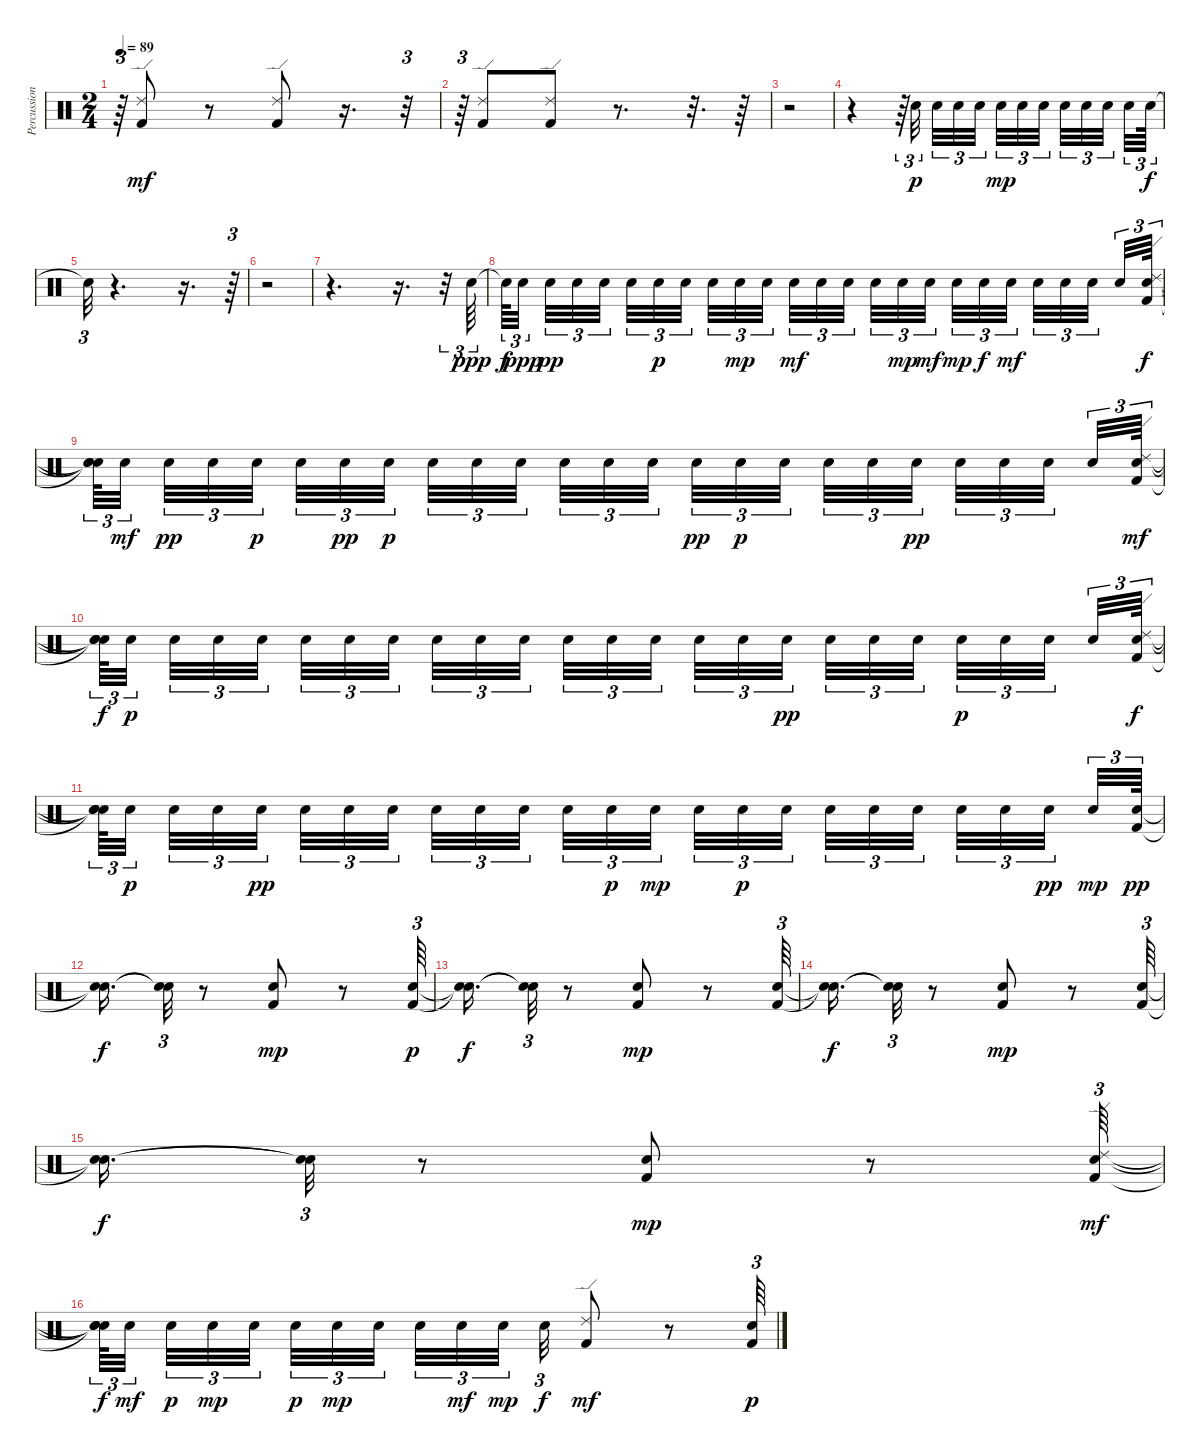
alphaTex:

\track ("Percussion" "Percussion") {instrument percussion}
\staff {score}
\articulation defaults
\ts (2 4)
\tempo 89
\clef neutral
\ks c
r.64{tu (3 2) dy mf} ("Kick (hit) 2" "Ride (edge) 2").8 r.8 ("Ride (edge) 2" "Kick (hit) 2").8 r.16{d} r.32{tu (3 2)} |
r.64{tu (3 2)} ("Ride (edge) 2" "Kick (hit) 2").8 ("Ride (edge) 2" "Kick (hit) 2").8 r.8{d} r.32{d} r.64 |
r.2 |
r.4 r.64{tu (3 2)} "Snare (hit) 2".32{tu (3 2) dy p beam splitsecondary} "Snare (hit) 2".32{tu (3 2)} "Snare (hit) 2".32{tu (3 2)} "Snare (hit) 2".32{tu (3 2) beam splitsecondary} "Snare (hit) 2".32{tu (3 2) dy mp} "Snare (hit) 2".32{tu (3 2)} "Snare (hit) 2".32{tu (3 2) beam splitsecondary} "Snare (hit) 2".32{tu (3 2)} "Snare (hit) 2".32{tu (3 2)} "Snare (hit) 2".32{tu (3 2) beam splitsecondary} "Snare (hit) 2".32{tu (3 2)} "Snare (hit) 2".64{tu (3 2) dy f} |
"Snare (hit)"{t}.32{tu (3 2)} r.4{d} r.16{d} r.64{tu (3 2)} |
r.2 |
r.4{d} r.16{d} r.32{tu (3 2)} "Snare (hit) 2".64{tu (3 2) dy ppp} |
"Snare (hit)"{t}.64{tu (3 2) dy f} "Snare (hit) 2".32{tu (3 2) dy ppp beam splitsecondary} "Snare (hit) 2".32{tu (3 2) dy pp} "Snare (hit) 2".32{tu (3 2)} "Snare (hit) 2".32{tu (3 2) beam splitsecondary} "Snare (hit) 2".32{tu (3 2)} "Snare (hit) 2".32{tu (3 2) dy p} "Snare (hit) 2".32{tu (3 2) beam splitsecondary} "Snare (hit) 2".32{tu (3 2)} "Snare (hit) 2".32{tu (3 2) dy mp} "Snare (hit) 2".32{tu (3 2) beam splitsecondary} "Snare (hit) 2".32{tu (3 2) dy mf} "Snare (hit) 2".32{tu (3 2)} "Snare (hit) 2".32{tu (3 2) beam splitsecondary} "Snare (hit) 2".32{tu (3 2)} "Snare (hit) 2".32{tu (3 2) dy mp} "Snare (hit) 2".32{tu (3 2) dy mf beam splitsecondary} "Snare (hit) 2".32{tu (3 2) dy mp} "Snare (hit) 2".32{tu (3 2) dy f} "Snare (hit) 2".32{tu (3 2) dy mf beam splitsecondary} "Snare (hit) 2".32{tu (3 2)} "Snare (hit) 2".32{tu (3 2)} "Snare (hit) 2".32{tu (3 2) beam splitsecondary} "Snare (hit) 2".32{tu (3 2)} ("Ride (edge) 2" "Kick (hit) 2" "Snare (hit) 2").64{tu (3 2) dy f} |
("Snare (hit)"{t} "Snare (hit)"{t} "Snare (hit)"{t}).64{tu (3 2)} "Snare (hit) 2".32{tu (3 2) dy mf beam splitsecondary} "Snare (hit) 2".32{tu (3 2) dy pp} "Snare (hit) 2".32{tu (3 2)} "Snare (hit) 2".32{tu (3 2) dy p beam splitsecondary} "Snare (hit) 2".32{tu (3 2)} "Snare (hit) 2".32{tu (3 2) dy pp} "Snare (hit) 2".32{tu (3 2) dy p beam splitsecondary} "Snare (hit) 2".32{tu (3 2)} "Snare (hit) 2".32{tu (3 2)} "Snare (hit) 2".32{tu (3 2) beam splitsecondary} "Snare (hit) 2".32{tu (3 2)} "Snare (hit) 2".32{tu (3 2)} "Snare (hit) 2".32{tu (3 2) beam splitsecondary} "Snare (hit) 2".32{tu (3 2) dy pp} "Snare (hit) 2".32{tu (3 2) dy p} "Snare (hit) 2".32{tu (3 2) beam splitsecondary} "Snare (hit) 2".32{tu (3 2)} "Snare (hit) 2".32{tu (3 2)} "Snare (hit) 2".32{tu (3 2) dy pp beam splitsecondary} "Snare (hit) 2".32{tu (3 2)} "Snare (hit) 2".32{tu (3 2)} "Snare (hit) 2".32{tu (3 2) beam splitsecondary} "Snare (hit) 2".32{tu (3 2)} ("Kick (hit) 2" "Ride (edge) 2" "Snare (hit) 2").64{tu (3 2) dy mf} |
("Snare (hit)"{t} "Snare (hit)"{t} "Snare (hit)"{t}).64{tu (3 2) dy f} "Snare (hit) 2".32{tu (3 2) dy p beam splitsecondary} "Snare (hit) 2".32{tu (3 2)} "Snare (hit) 2".32{tu (3 2)} "Snare (hit) 2".32{tu (3 2) beam splitsecondary} "Snare (hit) 2".32{tu (3 2)} "Snare (hit) 2".32{tu (3 2)} "Snare (hit) 2".32{tu (3 2) beam splitsecondary} "Snare (hit) 2".32{tu (3 2)} "Snare (hit) 2".32{tu (3 2)} "Snare (hit) 2".32{tu (3 2) beam splitsecondary} "Snare (hit) 2".32{tu (3 2)} "Snare (hit) 2".32{tu (3 2)} "Snare (hit) 2".32{tu (3 2) beam splitsecondary} "Snare (hit) 2".32{tu (3 2)} "Snare (hit) 2".32{tu (3 2)} "Snare (hit) 2".32{tu (3 2) dy pp beam splitsecondary} "Snare (hit) 2".32{tu (3 2)} "Snare (hit) 2".32{tu (3 2)} "Snare (hit) 2".32{tu (3 2) beam splitsecondary} "Snare (hit) 2".32{tu (3 2) dy p} "Snare (hit) 2".32{tu (3 2)} "Snare (hit) 2".32{tu (3 2) beam splitsecondary} "Snare (hit) 2".32{tu (3 2)} ("Ride (edge) 2" "Kick (hit) 2" "Snare (hit) 2").64{tu (3 2) dy f} |
("Snare (hit)"{t} "Snare (hit)"{t} "Snare (hit)"{t}).64{tu (3 2)} "Snare (hit) 2".32{tu (3 2) dy p beam splitsecondary} "Snare (hit) 2".32{tu (3 2)} "Snare (hit) 2".32{tu (3 2)} "Snare (hit) 2".32{tu (3 2) dy pp beam splitsecondary} "Snare (hit) 2".32{tu (3 2)} "Snare (hit) 2".32{tu (3 2)} "Snare (hit) 2".32{tu (3 2) beam splitsecondary} "Snare (hit) 2".32{tu (3 2)} "Snare (hit) 2".32{tu (3 2)} "Snare (hit) 2".32{tu (3 2) beam splitsecondary} "Snare (hit) 2".32{tu (3 2)} "Snare (hit) 2".32{tu (3 2) dy p} "Snare (hit) 2".32{tu (3 2) dy mp beam splitsecondary} "Snare (hit) 2".32{tu (3 2)} "Snare (hit) 2".32{tu (3 2) dy p} "Snare (hit) 2".32{tu (3 2) beam splitsecondary} "Snare (hit) 2".32{tu (3 2)} "Snare (hit) 2".32{tu (3 2)} "Snare (hit) 2".32{tu (3 2) beam splitsecondary} "Snare (hit) 2".32{tu (3 2)} "Snare (hit) 2".32{tu (3 2)} "Snare (hit) 2".32{tu (3 2) dy pp beam splitsecondary} "Snare (hit) 2".32{tu (3 2) dy mp} ("Kick (hit) 2" "Snare (hit) 2").64{tu (3 2) dy pp} |
("Snare (hit)"{t} "Snare (hit)"{t}).16{d dy f} ("Snare (hit)"{t} "Snare (hit)"{t}).32{tu (3 2)} r.8 ("Kick (hit) 2" "Snare (hit) 2").8{dy mp} r.8 ("Kick (hit) 2" "Snare (hit) 2").64{tu (3 2) dy p} |
("Snare (hit)"{t} "Snare (hit)"{t}).16{d dy f} ("Snare (hit)"{t} "Snare (hit)"{t}).32{tu (3 2)} r.8 ("Kick (hit) 2" "Snare (hit) 2").8{dy mp} r.8 ("Kick (hit) 2" "Snare (hit) 2").64{tu (3 2)} |
("Snare (hit)"{t} "Snare (hit)"{t}).16{d dy f} ("Snare (hit)"{t} "Snare (hit)"{t}).32{tu (3 2)} r.8 ("Kick (hit) 2" "Snare (hit) 2").8{dy mp} r.8 ("Kick (hit) 2" "Snare (hit) 2").64{tu (3 2)} |
("Snare (hit)"{t} "Snare (hit)"{t}).16{d dy f} ("Snare (hit)"{t} "Snare (hit)"{t}).32{tu (3 2)} r.8 ("Kick (hit) 2" "Snare (hit) 2").8{dy mp} r.8 ("Ride (edge) 2" "Kick (hit) 2" "Snare (hit) 2").64{tu (3 2) dy mf} |
("Snare (hit)"{t} "Snare (hit)"{t} "Snare (hit)"{t}).64{tu (3 2) dy f} "Snare (hit) 2".32{tu (3 2) dy mf beam splitsecondary} "Snare (hit) 2".32{tu (3 2) dy p} "Snare (hit) 2".32{tu (3 2) dy mp} "Snare (hit) 2".32{tu (3 2) beam splitsecondary} "Snare (hit) 2".32{tu (3 2) dy p} "Snare (hit) 2".32{tu (3 2) dy mp} "Snare (hit) 2".32{tu (3 2) beam splitsecondary} "Snare (hit) 2".32{tu (3 2)} "Snare (hit) 2".32{tu (3 2) dy mf} "Snare (hit) 2".32{tu (3 2) dy mp beam splitsecondary} "Snare (hit) 2".32{tu (3 2) dy f} ("Ride (edge) 2" "Kick (hit) 2").8{dy mf} r.8 ("Kick (hit) 2" "Snare (hit) 2").64{tu (3 2) dy p}
